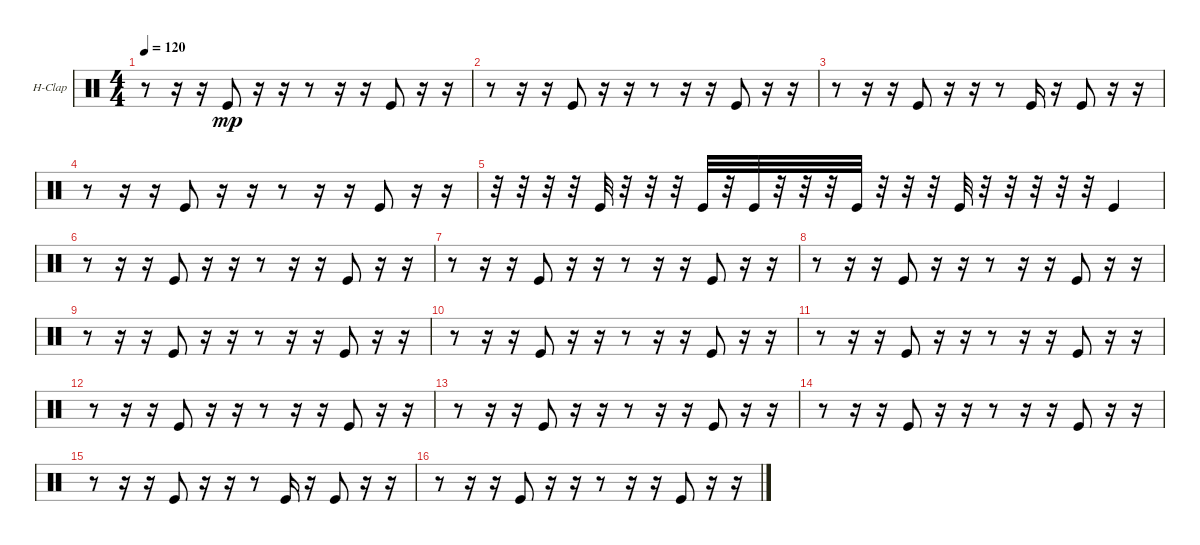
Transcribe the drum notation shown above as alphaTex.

\bracketExtendMode groupsimilarinstruments
\firstSystemTrackNameOrientation horizontal
\otherSystemsTrackNameOrientation horizontal
\track ("Hand Clap" "H-Clap") {instrument percussion}
\staff {score}
\articulation defaults
\ts (4 4)
\tempo 120
\clef neutral
\ks c
r.8{dy mp} r.16 r.16 "Kick (hit)".8 r.16 r.16 r.8 r.16 r.16 "Kick (hit)".8 r.16 r.16 |
r.8 r.16 r.16 "Kick (hit)".8 r.16 r.16 r.8 r.16 r.16 "Kick (hit)".8 r.16 r.16 |
r.8 r.16 r.16 "Kick (hit)".8 r.16 r.16 r.8 "Kick (hit)".16 r.16 "Kick (hit)".8 r.16 r.16 |
r.8 r.16 r.16 "Kick (hit)".8 r.16 r.16 r.8 r.16 r.16 "Kick (hit)".8 r.16 r.16 |
r.32 r.32 r.32 r.32 "Kick (hit)".32 r.32 r.32 r.32 "Kick (hit)".32 r.32 "Kick (hit)".32 r.32 r.32 r.32 "Kick (hit)".32 r.32 r.32 r.32 "Kick (hit)".32 r.32 r.32 r.32 r.32 r.32 "Kick (hit)".4 |
r.8 r.16 r.16 "Kick (hit)".8 r.16 r.16 r.8 r.16 r.16 "Kick (hit)".8 r.16 r.16 |
r.8 r.16 r.16 "Kick (hit)".8 r.16 r.16 r.8 r.16 r.16 "Kick (hit)".8 r.16 r.16 |
r.8 r.16 r.16 "Kick (hit)".8 r.16 r.16 r.8 r.16 r.16 "Kick (hit)".8 r.16 r.16 |
r.8 r.16 r.16 "Kick (hit)".8 r.16 r.16 r.8 r.16 r.16 "Kick (hit)".8 r.16 r.16 |
r.8 r.16 r.16 "Kick (hit)".8 r.16 r.16 r.8 r.16 r.16 "Kick (hit)".8 r.16 r.16 |
r.8 r.16 r.16 "Kick (hit)".8 r.16 r.16 r.8 r.16 r.16 "Kick (hit)".8 r.16 r.16 |
r.8 r.16 r.16 "Kick (hit)".8 r.16 r.16 r.8 r.16 r.16 "Kick (hit)".8 r.16 r.16 |
r.8 r.16 r.16 "Kick (hit)".8 r.16 r.16 r.8 r.16 r.16 "Kick (hit)".8 r.16 r.16 |
r.8 r.16 r.16 "Kick (hit)".8 r.16 r.16 r.8 r.16 r.16 "Kick (hit)".8 r.16 r.16 |
r.8 r.16 r.16 "Kick (hit)".8 r.16 r.16 r.8 "Kick (hit)".16 r.16 "Kick (hit)".8 r.16 r.16 |
r.8 r.16 r.16 "Kick (hit)".8 r.16 r.16 r.8 r.16 r.16 "Kick (hit)".8 r.16 r.16
